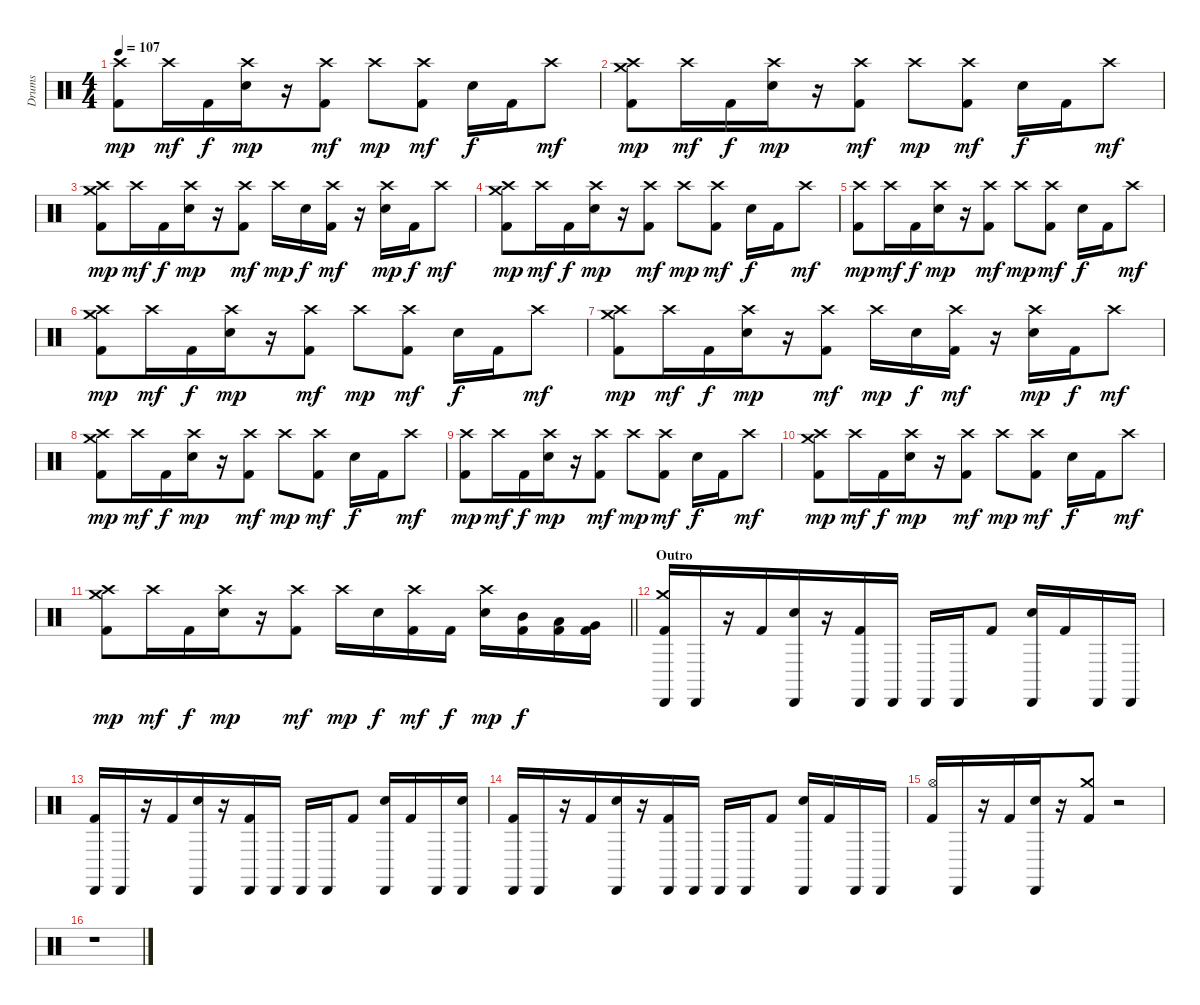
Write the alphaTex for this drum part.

\track ("Drums" "Drums") {instrument percussion}
\staff {score}
\articulation defaults
\ts (4 4)
\tempo 107
\clef neutral
\ks c
("Crash high (hit)" "Kick (hit) 2").8{dy mp} "Crash high (hit)".16{dy mf} "Kick (hit) 2".16{dy f beam merge} ("Crash high (hit)" "Electric Snare (hit)").16{dy mp} r.16 ("Crash high (hit)" "Kick (hit) 2").8{dy mf} "Crash high (hit)".8{dy mp} ("Crash high (hit)" "Kick (hit) 2").8{dy mf} "Electric Snare (hit)".16{dy f} "Kick (hit) 2".16 "Crash high (hit)".8{dy mf} |
("Crash medium (hit)" "Crash high (hit)" "Kick (hit) 2").8{dy mp} "Crash high (hit)".16{dy mf} "Kick (hit) 2".16{dy f beam merge} ("Crash high (hit)" "Electric Snare (hit)").16{dy mp} r.16 ("Crash high (hit)" "Kick (hit) 2").8{dy mf} "Crash high (hit)".8{dy mp} ("Crash high (hit)" "Kick (hit) 2").8{dy mf} "Electric Snare (hit)".16{dy f} "Kick (hit) 2".16 "Crash high (hit)".8{dy mf} |
("Crash medium (hit)" "Crash high (hit)" "Kick (hit) 2").8{dy mp} "Crash high (hit)".16{dy mf} "Kick (hit) 2".16{dy f beam merge} ("Crash high (hit)" "Electric Snare (hit)").16{dy mp} r.16 ("Crash high (hit)" "Kick (hit) 2").8{dy mf} "Crash high (hit)".16{dy mp} "Electric Snare (hit)".16{dy f} ("Crash high (hit)" "Kick (hit) 2").16{dy mf} r.16 ("Crash high (hit)" "Electric Snare (hit)").16{dy mp} "Kick (hit) 2".16{dy f} "Crash high (hit)".8{dy mf} |
("Crash medium (hit)" "Crash high (hit)" "Kick (hit) 2").8{dy mp} "Crash high (hit)".16{dy mf} "Kick (hit) 2".16{dy f beam merge} ("Crash high (hit)" "Electric Snare (hit)").16{dy mp} r.16 ("Crash high (hit)" "Kick (hit) 2").8{dy mf} "Crash high (hit)".8{dy mp} ("Crash high (hit)" "Kick (hit) 2").8{dy mf} "Electric Snare (hit)".16{dy f} "Kick (hit) 2".16 "Crash high (hit)".8{dy mf} |
("Crash high (hit)" "Kick (hit) 2").8{dy mp} "Crash high (hit)".16{dy mf} "Kick (hit) 2".16{dy f beam merge} ("Crash high (hit)" "Electric Snare (hit)").16{dy mp} r.16 ("Crash high (hit)" "Kick (hit) 2").8{dy mf} "Crash high (hit)".8{dy mp} ("Crash high (hit)" "Kick (hit) 2").8{dy mf} "Electric Snare (hit)".16{dy f} "Kick (hit) 2".16 "Crash high (hit)".8{dy mf} |
("Crash medium (hit)" "Crash high (hit)" "Kick (hit) 2").8{dy mp} "Crash high (hit)".16{dy mf} "Kick (hit) 2".16{dy f beam merge} ("Crash high (hit)" "Electric Snare (hit)").16{dy mp} r.16 ("Crash high (hit)" "Kick (hit) 2").8{dy mf} "Crash high (hit)".8{dy mp} ("Crash high (hit)" "Kick (hit) 2").8{dy mf} "Electric Snare (hit)".16{dy f} "Kick (hit) 2".16 "Crash high (hit)".8{dy mf} |
("Crash medium (hit)" "Crash high (hit)" "Kick (hit) 2").8{dy mp} "Crash high (hit)".16{dy mf} "Kick (hit) 2".16{dy f beam merge} ("Crash high (hit)" "Electric Snare (hit)").16{dy mp} r.16 ("Crash high (hit)" "Kick (hit) 2").8{dy mf} "Crash high (hit)".16{dy mp} "Electric Snare (hit)".16{dy f} ("Crash high (hit)" "Kick (hit) 2").16{dy mf} r.16 ("Crash high (hit)" "Electric Snare (hit)").16{dy mp} "Kick (hit) 2".16{dy f} "Crash high (hit)".8{dy mf} |
("Crash medium (hit)" "Crash high (hit)" "Kick (hit) 2").8{dy mp} "Crash high (hit)".16{dy mf} "Kick (hit) 2".16{dy f beam merge} ("Crash high (hit)" "Electric Snare (hit)").16{dy mp} r.16 ("Crash high (hit)" "Kick (hit) 2").8{dy mf} "Crash high (hit)".8{dy mp} ("Crash high (hit)" "Kick (hit) 2").8{dy mf} "Electric Snare (hit)".16{dy f} "Kick (hit) 2".16 "Crash high (hit)".8{dy mf} |
("Crash high (hit)" "Kick (hit) 2").8{dy mp} "Crash high (hit)".16{dy mf} "Kick (hit) 2".16{dy f beam merge} ("Crash high (hit)" "Electric Snare (hit)").16{dy mp} r.16 ("Crash high (hit)" "Kick (hit) 2").8{dy mf} "Crash high (hit)".8{dy mp} ("Crash high (hit)" "Kick (hit) 2").8{dy mf} "Electric Snare (hit)".16{dy f} "Kick (hit) 2".16 "Crash high (hit)".8{dy mf} |
("Crash medium (hit)" "Crash high (hit)" "Kick (hit) 2").8{dy mp} "Crash high (hit)".16{dy mf} "Kick (hit) 2".16{dy f beam merge} ("Crash high (hit)" "Electric Snare (hit)").16{dy mp} r.16 ("Crash high (hit)" "Kick (hit) 2").8{dy mf} "Crash high (hit)".8{dy mp} ("Crash high (hit)" "Kick (hit) 2").8{dy mf} "Electric Snare (hit)".16{dy f} "Kick (hit) 2".16 "Crash high (hit)".8{dy mf} |
\barLineRight lightlight
("Crash medium (hit)" "Crash high (hit)" "Kick (hit) 2").8{dy mp} "Crash high (hit)".16{dy mf} "Kick (hit) 2".16{dy f beam merge} ("Crash high (hit)" "Electric Snare (hit)").16{dy mp} r.16 ("Crash high (hit)" "Kick (hit) 2").8{dy mf} "Crash high (hit)".16{dy mp} "Electric Snare (hit)".16{dy f} ("Crash high (hit)" "Kick (hit) 2").16{dy mf} "Kick (hit) 2".16{dy f} ("Crash high (hit)" "Electric Snare (hit)").16{dy mp} ("Mid Tom (hit)" "Kick (hit) 2").16{dy f} ("Low Tom (hit)" "Kick (hit) 2").16 ("Very Low Tom (hit)" "Kick (hit) 2").16 |
\section ("" "Outro")
("Crash medium (hit)" "Cabasa (hit)" "Kick (hit) 2").16 "Cabasa (hit)".16 r.16 "Kick (hit) 2".16{beam merge} ("Cabasa (hit)" "Electric Snare (hit)").16 r.16 ("Cabasa (hit)" "Kick (hit) 2").16 "Cabasa (hit)".16 "Cabasa (hit)".16 "Cabasa (hit)".16 "Kick (hit) 2".8 ("Cabasa (hit)" "Electric Snare (hit)").16 "Kick (hit) 2".16 "Cabasa (hit)".16 "Cabasa (hit)".16 |
("Cabasa (hit)" "Kick (hit) 2").16 "Cabasa (hit)".16 r.16 "Kick (hit) 2".16{beam merge} ("Cabasa (hit)" "Electric Snare (hit)").16 r.16 ("Cabasa (hit)" "Kick (hit) 2").16 "Cabasa (hit)".16 "Cabasa (hit)".16 "Cabasa (hit)".16 "Kick (hit) 2".8 ("Cabasa (hit)" "Electric Snare (hit)").16 "Kick (hit) 2".16 "Cabasa (hit)".16 ("Cabasa (hit)" "Electric Snare (hit)").16 |
("Cabasa (hit)" "Kick (hit) 2").16 "Cabasa (hit)".16 r.16 "Kick (hit) 2".16{beam merge} ("Cabasa (hit)" "Electric Snare (hit)").16 r.16 ("Cabasa (hit)" "Kick (hit) 2").16 "Cabasa (hit)".16 "Cabasa (hit)".16 "Cabasa (hit)".16 "Kick (hit) 2".8 ("Cabasa (hit)" "Electric Snare (hit)").16 "Kick (hit) 2".16 "Cabasa (hit)".16 "Cabasa (hit)".16 |
("Hi-Hat (open)" "Kick (hit) 2").16 "Cabasa (hit)".16 r.16 "Kick (hit) 2".16{beam merge} ("Cabasa (hit)" "Electric Snare (hit)").16 r.16 ("Crash medium (hit)" "Kick (hit) 2").8 r.2 |
r.1
